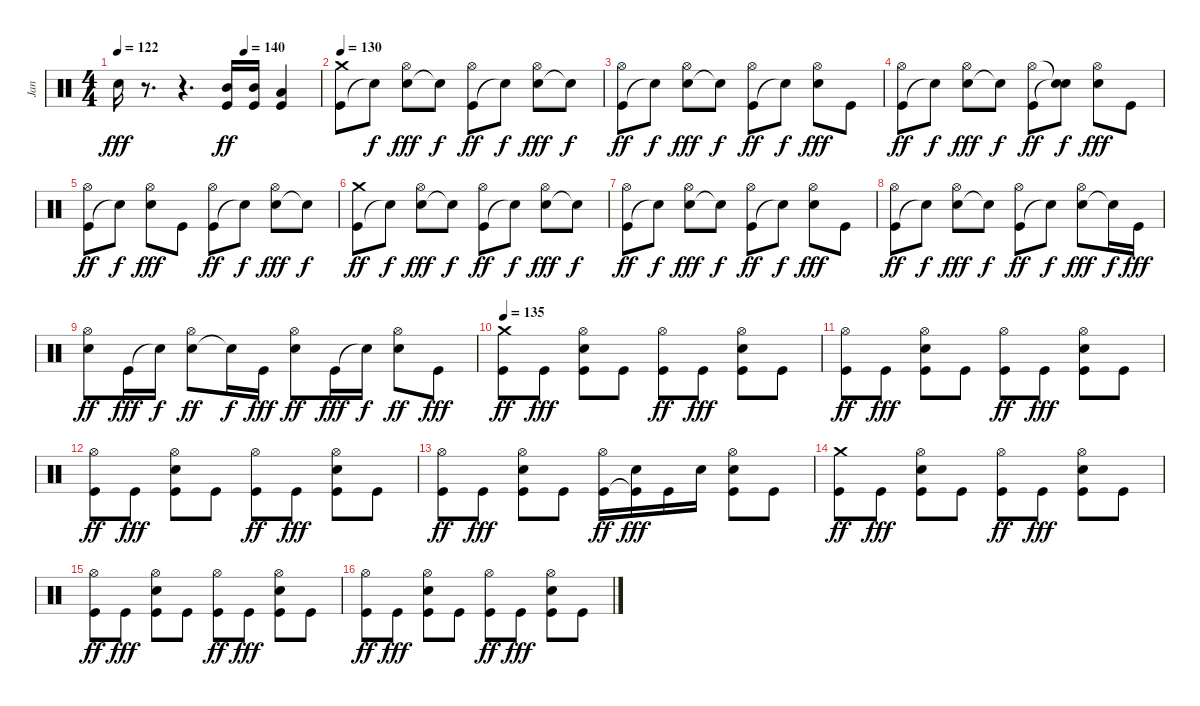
\track ("Jan" "Jan") {instrument percussion}
\staff {score}
\articulation defaults
\ts (4 4)
\tempo 122
\tempo (140 0.625)
\clef neutral
\ks c "Snare (hit) 2".16{dy fff}
r.8{d} r.4{d} ("Kick (hit)" "Mid Tom (hit)").16{dy ff} ("Kick (hit)" "Mid Tom (hit)").16 ("Kick (hit)" "Low Tom (hit)").4 |
\tempo 130
("Kick (hit)" "Crash medium (hit)").8 "Snare (hit)"{t}.8{dy f} ("Snare (hit) 2" "Hi-Hat (open)").8{dy fff} "Snare (hit)"{t}.8{dy f} ("Kick (hit)" "Hi-Hat (open)").8{dy ff} "Snare (hit)"{t}.8{dy f} ("Snare (hit) 2" "Hi-Hat (open)").8{dy fff} "Snare (hit)"{t}.8{dy f} |
("Kick (hit)" "Hi-Hat (open)").8{dy ff} "Snare (hit)"{t}.8{dy f} ("Snare (hit) 2" "Hi-Hat (open)").8{dy fff} "Snare (hit)"{t}.8{dy f} ("Kick (hit)" "Hi-Hat (open)").8{dy ff} "Snare (hit)"{t}.8{dy f} ("Snare (hit) 2" "Hi-Hat (open)").8{dy fff} "Kick (hit)".8 |
("Kick (hit)" "Hi-Hat (open)").8{dy ff} "Snare (hit)"{t}.8{dy f} ("Snare (hit) 2" "Hi-Hat (open)").8{dy fff} "Snare (hit)"{t}.8{dy f} ("Kick (hit)" "Hi-Hat (open)").8{dy ff} ("Snare (hit)"{t} "Snare (hit)"{t}).8{dy f} ("Snare (hit) 2" "Hi-Hat (open)").8{dy fff} "Kick (hit)".8 |
("Kick (hit)" "Hi-Hat (open)").8{dy ff} "Snare (hit)"{t}.8{dy f} ("Snare (hit) 2" "Hi-Hat (open)").8{dy fff} "Kick (hit)".8 ("Kick (hit)" "Hi-Hat (open)").8{dy ff} "Snare (hit)"{t}.8{dy f} ("Snare (hit) 2" "Hi-Hat (open)").8{dy fff} "Snare (hit)"{t}.8{dy f} |
("Kick (hit)" "Crash medium (hit)").8{dy ff} "Snare (hit)"{t}.8{dy f} ("Snare (hit) 2" "Hi-Hat (open)").8{dy fff} "Snare (hit)"{t}.8{dy f} ("Kick (hit)" "Hi-Hat (open)").8{dy ff} "Snare (hit)"{t}.8{dy f} ("Snare (hit) 2" "Hi-Hat (open)").8{dy fff} "Snare (hit)"{t}.8{dy f} |
("Kick (hit)" "Hi-Hat (open)").8{dy ff} "Snare (hit)"{t}.8{dy f} ("Snare (hit) 2" "Hi-Hat (open)").8{dy fff} "Snare (hit)"{t}.8{dy f} ("Kick (hit)" "Hi-Hat (open)").8{dy ff} "Snare (hit)"{t}.8{dy f} ("Snare (hit) 2" "Hi-Hat (open)").8{dy fff} "Kick (hit)".8 |
("Kick (hit)" "Hi-Hat (open)").8{dy ff} "Snare (hit)"{t}.8{dy f} ("Snare (hit) 2" "Hi-Hat (open)").8{dy fff} "Snare (hit)"{t}.8{dy f} ("Kick (hit)" "Hi-Hat (open)").8{dy ff} "Snare (hit)"{t}.8{dy f} ("Snare (hit) 2" "Hi-Hat (open)").8{dy fff} "Snare (hit)"{t}.16{dy f} "Kick (hit)".16{dy fff} |
("Snare (hit) 2" "Hi-Hat (open)").8{dy ff} "Kick (hit)".16{dy fff} "Snare (hit)"{t}.16{dy f} ("Snare (hit) 2" "Hi-Hat (open)").8{dy ff} "Snare (hit)"{t}.16{dy f} "Kick (hit)".16{dy fff} ("Snare (hit) 2" "Hi-Hat (open)").8{dy ff} "Kick (hit)".16{dy fff} "Snare (hit)"{t}.16{dy f} ("Snare (hit) 2" "Hi-Hat (open)").8{dy ff} "Kick (hit)".8{dy fff} |
\tempo 135
("Kick (hit)" "Crash medium (hit)").8{dy ff} "Kick (hit)".8{dy fff} ("Kick (hit)" "Snare (hit) 2" "Hi-Hat (open)").8 "Kick (hit)".8 ("Kick (hit)" "Hi-Hat (open)").8{dy ff} "Kick (hit)".8{dy fff} ("Kick (hit)" "Snare (hit) 2" "Hi-Hat (open)").8 "Kick (hit)".8 |
("Kick (hit)" "Hi-Hat (open)").8{dy ff} "Kick (hit)".8{dy fff} ("Kick (hit)" "Snare (hit) 2" "Hi-Hat (open)").8 "Kick (hit)".8 ("Kick (hit)" "Hi-Hat (open)").8{dy ff} "Kick (hit)".8{dy fff} ("Kick (hit)" "Snare (hit) 2" "Hi-Hat (open)").8 "Kick (hit)".8 |
("Kick (hit)" "Hi-Hat (open)").8{dy ff} "Kick (hit)".8{dy fff} ("Kick (hit)" "Snare (hit) 2" "Hi-Hat (open)").8 "Kick (hit)".8 ("Kick (hit)" "Hi-Hat (open)").8{dy ff} "Kick (hit)".8{dy fff} ("Kick (hit)" "Snare (hit) 2" "Hi-Hat (open)").8 "Kick (hit)".8 |
("Kick (hit)" "Hi-Hat (open)").8{dy ff} "Kick (hit)".8{dy fff} ("Kick (hit)" "Snare (hit) 2" "Hi-Hat (open)").8 "Kick (hit)".8 ("Kick (hit)" "Hi-Hat (open)").16{dy ff} ("Kick (hit)"{t} "Snare (hit) 2").16{dy fff} "Kick (hit)".16 "Snare (hit) 2".16 ("Kick (hit)" "Snare (hit) 2" "Hi-Hat (open)").8 "Kick (hit)".8 |
("Kick (hit)" "Crash medium (hit)").8{dy ff} "Kick (hit)".8{dy fff} ("Kick (hit)" "Snare (hit) 2" "Hi-Hat (open)").8 "Kick (hit)".8 ("Kick (hit)" "Hi-Hat (open)").8{dy ff} "Kick (hit)".8{dy fff} ("Kick (hit)" "Snare (hit) 2" "Hi-Hat (open)").8 "Kick (hit)".8 |
("Kick (hit)" "Hi-Hat (open)").8{dy ff} "Kick (hit)".8{dy fff} ("Kick (hit)" "Snare (hit) 2" "Hi-Hat (open)").8 "Kick (hit)".8 ("Kick (hit)" "Hi-Hat (open)").8{dy ff} "Kick (hit)".8{dy fff} ("Kick (hit)" "Snare (hit) 2" "Hi-Hat (open)").8 "Kick (hit)".8 |
("Kick (hit)" "Hi-Hat (open)").8{dy ff} "Kick (hit)".8{dy fff} ("Kick (hit)" "Snare (hit) 2" "Hi-Hat (open)").8 "Kick (hit)".8 ("Kick (hit)" "Hi-Hat (open)").8{dy ff} "Kick (hit)".8{dy fff} ("Kick (hit)" "Snare (hit) 2" "Hi-Hat (open)").8 "Kick (hit)".8
